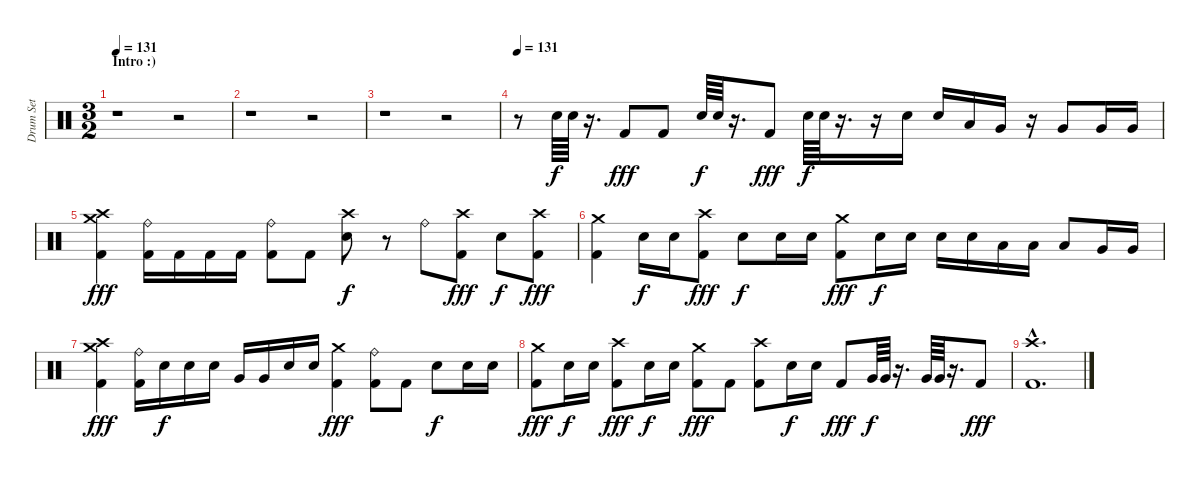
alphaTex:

\track ("Drum Set" "Drum Set") {instrument percussion}
\staff {score}
\articulation defaults
\ts (3 2)
\section ("" "Intro :)")
\tempo 131
\clef neutral
\ks c
r.1{dy f} r.2 |
r.1 r.2 |
r.1 r.2 |
\tempo 131
r.8 "Snare (hit) 2".64 "Snare (hit) 2".64 r.16{d} "Kick (hit) 2".8{dy fff} "Kick (hit) 2".8 "Snare (hit) 2".64{dy f} "Snare (hit) 2".64 r.16{d} "Kick (hit) 2".8{dy fff} "Snare (hit) 2".64{dy f} "Snare (hit) 2".64 r.16{d} r.16 "Snare (hit) 2".16 "Snare (hit) 2".16 "Low Tom (hit)".16 "Very Low Tom (hit)".16 r.16 "Very Low Tom (hit)".8 "Very Low Tom (hit)".16 "Very Low Tom (hit)".16 |
("Crash high (hit)" "Crash medium (hit)" "Kick (hit) 2").4{dy fff} ("Ride (bell)" "Kick (hit) 2").16 "Kick (hit) 2".16 "Kick (hit) 2".16 "Kick (hit) 2".16 ("Ride (bell)" "Kick (hit) 2").8 "Kick (hit) 2".8 ("Crash high (hit)" "Snare (hit) 2").8{dy f} r.8 "Ride (bell)".8 ("Crash high (hit)" "Kick (hit) 2").8{dy fff} "Snare (hit) 2".8{dy f} ("Crash high (hit)" "Kick (hit) 2").8{dy fff} |
("Crash medium (hit)" "Kick (hit) 2").4 "Snare (hit) 2".16{dy f} "Snare (hit) 2".16 ("Crash high (hit)" "Kick (hit) 2").8{dy fff} "Snare (hit) 2".8{dy f} "Snare (hit) 2".16 "Snare (hit) 2".16 ("Crash medium (hit)" "Kick (hit) 2").8{dy fff} "Snare (hit) 2".16{dy f} "Snare (hit) 2".16 "Snare (hit) 2".16 "Snare (hit) 2".16 "Low Tom (hit)".16 "Low Tom (hit)".16 "Low Tom (hit)".8 "Very Low Tom (hit)".16 "Very Low Tom (hit)".16 |
("Crash high (hit)" "Crash medium (hit)" "Kick (hit) 2").4{dy fff} ("Ride (bell)" "Kick (hit) 2").16 "Snare (hit) 2".16{dy f} "Snare (hit) 2".16 "Snare (hit) 2".16 "Very Low Tom (hit)".16 "Very Low Tom (hit)".16 "Snare (hit) 2".16 "Snare (hit) 2".16 ("Crash medium (hit)" "Kick (hit) 2").4{dy fff} ("Ride (bell)" "Kick (hit) 2").8 "Kick (hit) 2".8 "Snare (hit) 2".8{dy f} "Snare (hit) 2".16 "Snare (hit) 2".16 |
("Crash medium (hit)" "Kick (hit) 2").8{dy fff} "Snare (hit) 2".16{dy f} "Snare (hit) 2".16 ("Crash high (hit)" "Kick (hit) 2").8{dy fff} "Snare (hit) 2".16{dy f} "Snare (hit) 2".16 ("Crash medium (hit)" "Kick (hit) 2").8{dy fff} "Kick (hit) 2".8 ("Crash high (hit)" "Kick (hit) 2").8 "Snare (hit) 2".16{dy f} "Snare (hit) 2".16 "Kick (hit) 2".8{dy fff} "Very Low Tom (hit)".64{dy f} "Very Low Tom (hit)".64 r.16{d} "Very Low Tom (hit)".64 "Very Low Tom (hit)".64 r.16{d} "Kick (hit) 2".8{dy fff} |
("Crash high (hit)"{hac} "Kick (hit) 2"{hac}).1{d}
